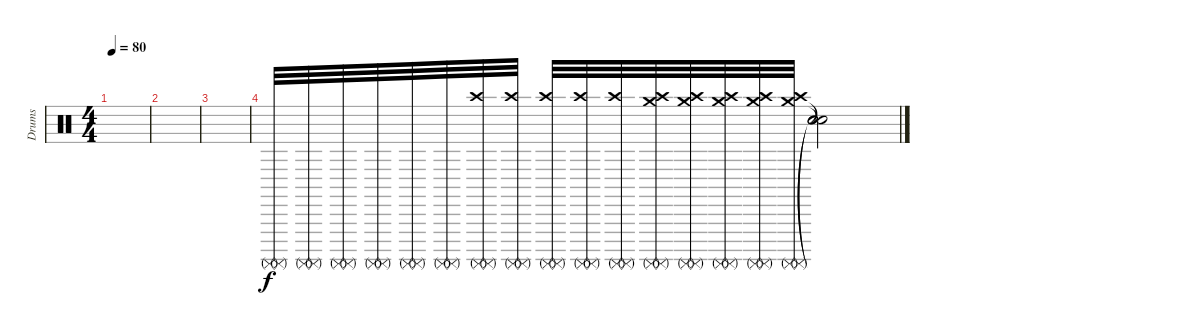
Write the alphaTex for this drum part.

\track ("Drums" "Drums") {instrument percussion}
\staff {score}
\articulation defaults
\ts (4 4)
\tempo 80
\clef neutral
\ks c
|
|
|
("Surdo (mute)" "Surdo (mute)").32{volume 16} ("Surdo (mute)" "Surdo (mute)").32 ("Surdo (mute)" "Surdo (mute)").32 ("Surdo (mute)" "Surdo (mute)").32 ("Surdo (mute)" "Surdo (mute)").32 ("Surdo (mute)" "Surdo (mute)").32 ("Crash high (hit)" "Surdo (mute)" "Surdo (mute)").32 ("Crash high (hit)" "Surdo (mute)" "Surdo (mute)").32 ("Crash high (hit)" "Surdo (mute)" "Surdo (mute)").32 ("Crash high (hit)" "Surdo (mute)" "Surdo (mute)").32 ("Crash high (hit)" "Surdo (mute)" "Surdo (mute)").32 ("Crash medium (hit)" "Crash high (hit)" "Surdo (mute)" "Surdo (mute)").32 ("Crash medium (hit)" "Crash high (hit)" "Surdo (mute)" "Surdo (mute)").32 ("Crash medium (hit)" "Crash high (hit)" "Surdo (mute)" "Surdo (mute)").32 ("Crash medium (hit)" "Crash high (hit)" "Surdo (mute)" "Surdo (mute)").32 ("Crash medium (hit)" "Crash high (hit)" "Surdo (mute)" "Surdo (mute)").32 ("Snare (hit)"{t} "Snare (hit)"{t} "Snare (hit)"{t} "Snare (hit)"{t}).2
